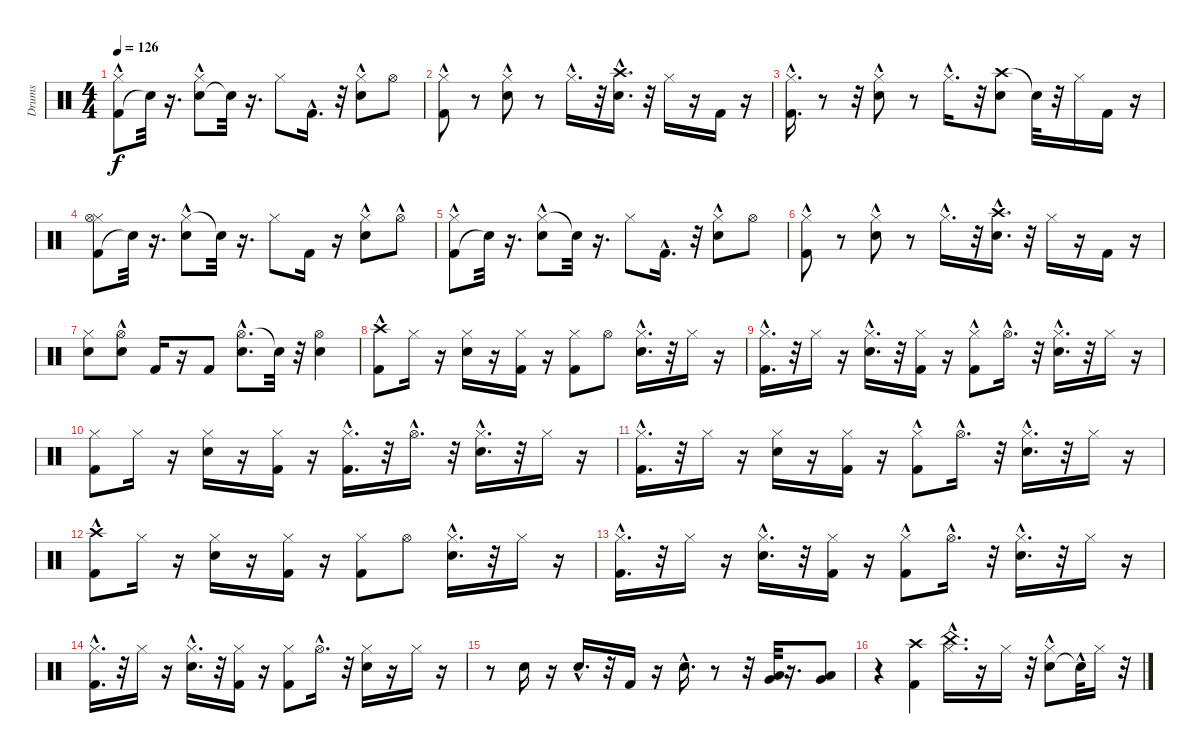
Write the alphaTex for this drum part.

\track ("Drums" "Drums") {instrument percussion}
\staff {score}
\articulation defaults
\ts (4 4)
\tempo 126
\clef neutral
\ks c
("Kick (hit) 2"{hac} "Hi-Hat (closed)").8{dy f} "Snare (hit)"{t}.32 r.16{d} ("Electric Snare (hit)"{hac} "Hi-Hat (closed)").8 "Snare (hit)"{t}.32 r.16{d} "Hi-Hat (closed)".8 "Kick (hit) 2"{hac}.16{d} r.32 ("Electric Snare (hit)"{hac} "Hi-Hat (closed)").8 "Hi-Hat (open)".8 |
("Hi-Hat (closed)" "Kick (hit) 2"{hac}).8 r.8 ("Hi-Hat (closed)" "Electric Snare (hit)"{hac}).8 r.8 "Hi-Hat (closed)"{hac}.16{d} r.32 ("Electric Snare (hit)"{hac} "Crash high (hit)"{hac}).16{d} r.32 "Hi-Hat (closed)".16 r.16 "Kick (hit) 2".16 r.16 |
("Kick (hit) 2"{hac} "Hi-Hat (closed)"{hac}).16{d} r.8 r.32 ("Electric Snare (hit)" "Hi-Hat (closed)"{hac}).8 r.8 "Hi-Hat (closed)"{hac}.16{d} r.32 ("Crash high (hit)" "Electric Snare (hit)").8 "Snare (hit)"{t}.32 r.32 "Hi-Hat (closed)".16 "Kick (hit) 2".16 r.16 |
("Kick (hit) 2" "Hi-Hat (closed)" "Hi-Hat (open)").8 "Snare (hit)"{t}.32 r.16{d} ("Hi-Hat (closed)" "Electric Snare (hit)"{hac}).8 "Snare (hit)"{t}.32 r.16{d} "Hi-Hat (closed)".8 "Kick (hit) 2".16 r.16 ("Hi-Hat (closed)" "Electric Snare (hit)"{hac}).8 "Hi-Hat (open)"{hac}.8 |
("Kick (hit) 2"{hac} "Hi-Hat (closed)").8 "Snare (hit)"{t}.32 r.16{d} ("Hi-Hat (closed)" "Electric Snare (hit)"{hac}).8 "Snare (hit)"{t}.32 r.16{d} "Hi-Hat (closed)".8 "Kick (hit) 2"{hac}.16{d} r.32 ("Hi-Hat (closed)" "Electric Snare (hit)"{hac}).8 "Hi-Hat (open)".8 |
("Hi-Hat (closed)" "Kick (hit) 2"{hac}).8 r.8 ("Electric Snare (hit)"{hac} "Hi-Hat (closed)").8 r.8 "Hi-Hat (closed)"{hac}.16{d} r.32 ("Electric Snare (hit)"{hac} "Crash high (hit)"{hac}).16{d} r.32 "Hi-Hat (closed)".16 r.16 "Kick (hit) 2".16 r.16 |
("Electric Snare (hit)" "Hi-Hat (closed)").8 ("Electric Snare (hit)"{hac} "Hi-Hat (open)").8 "Kick (hit) 2".16 r.16 "Kick (hit) 2".8 ("Hi-Hat (open)"{hac} "Electric Snare (hit)").8{d} "Snare (hit)"{t}.32 r.32 ("Electric Snare (hit)" "Hi-Hat (open)").4 |
("Kick (hit) 2" "Crash high (hit)"{hac}).8 "Hi-Hat (closed)".16 r.16 ("Electric Snare (hit)" "Hi-Hat (closed)").16 r.16 ("Hi-Hat (closed)" "Kick (hit) 2").16 r.16 ("Kick (hit) 2" "Hi-Hat (closed)").8 "Hi-Hat (open)".8 ("Hi-Hat (closed)" "Electric Snare (hit)"{hac}).16{d} r.32 "Hi-Hat (closed)".16 r.16 |
("Kick (hit) 2"{hac} "Hi-Hat (closed)").16{d} r.32 "Hi-Hat (closed)".16 r.16 ("Hi-Hat (closed)" "Electric Snare (hit)"{hac}).16{d} r.32 ("Kick (hit) 2" "Hi-Hat (closed)").16 r.16 ("Hi-Hat (closed)"{hac} "Kick (hit) 2").8 "Hi-Hat (open)"{hac}.16{d} r.32 ("Electric Snare (hit)" "Hi-Hat (closed)"{hac}).16{d} r.32 "Hi-Hat (closed)".16 r.16 |
("Hi-Hat (closed)" "Kick (hit) 2").8 "Hi-Hat (closed)".16 r.16 ("Electric Snare (hit)" "Hi-Hat (closed)").16 r.16 ("Hi-Hat (closed)" "Kick (hit) 2").16 r.16 ("Kick (hit) 2"{hac} "Hi-Hat (closed)").16{d} r.32 "Hi-Hat (open)"{hac}.16{d} r.32 ("Electric Snare (hit)"{hac} "Hi-Hat (closed)").16{d} r.32 "Hi-Hat (closed)".16 r.16 |
("Hi-Hat (closed)" "Kick (hit) 2"{hac}).16{d} r.32 "Hi-Hat (closed)".16 r.16 ("Hi-Hat (closed)" "Electric Snare (hit)").16 r.16 ("Kick (hit) 2" "Hi-Hat (closed)").16 r.16 ("Kick (hit) 2" "Hi-Hat (closed)"{hac}).8 "Hi-Hat (open)"{hac}.16{d} r.32 ("Hi-Hat (closed)"{hac} "Electric Snare (hit)"{hac}).16{d} r.32 "Hi-Hat (closed)".16 r.16 |
("Kick (hit) 2" "Crash high (hit)"{hac}).8 "Hi-Hat (closed)".16 r.16 ("Electric Snare (hit)" "Hi-Hat (closed)").16 r.16 ("Kick (hit) 2" "Hi-Hat (closed)").16 r.16 ("Hi-Hat (closed)" "Kick (hit) 2").8 "Hi-Hat (open)".8 ("Hi-Hat (closed)" "Electric Snare (hit)"{hac}).16{d} r.32 "Hi-Hat (closed)".16 r.16 |
("Kick (hit) 2"{hac} "Hi-Hat (closed)").16{d} r.32 "Hi-Hat (closed)".16 r.16 ("Electric Snare (hit)"{hac} "Hi-Hat (closed)").16{d} r.32 ("Hi-Hat (closed)" "Kick (hit) 2").16 r.16 ("Hi-Hat (closed)"{hac} "Kick (hit) 2").8 "Hi-Hat (open)"{hac}.16{d} r.32 ("Hi-Hat (closed)"{hac} "Electric Snare (hit)").16{d} r.32 "Hi-Hat (closed)".16 r.16 |
("Hi-Hat (closed)" "Kick (hit) 2"{hac}).16{d} r.32 "Hi-Hat (closed)".16 r.16 ("Electric Snare (hit)"{hac} "Hi-Hat (closed)").16{d} r.32 ("Kick (hit) 2" "Hi-Hat (closed)").16 r.16 ("Hi-Hat (closed)" "Kick (hit) 2").8 "Hi-Hat (open)"{hac}.16{d} r.32 ("Electric Snare (hit)" "Hi-Hat (closed)").16 r.16 "Hi-Hat (closed)".16 r.16 |
r.8 "Electric Snare (hit)".16 r.16 "Electric Snare (hit)"{hac}.16{d} r.32 "Kick (hit) 2".16 r.16 "Electric Snare (hit)"{hac}.16{d} r.8 r.32 ("Low Tom (hit)" "Very Low Tom (hit)").32 r.16{d} ("Low Floor Tom (hit)" "Very Low Tom (hit)").8 |
r.4 ("Crash high (hit)" "Kick (hit) 2").4 ("China (hit)"{hac} "Hi-Hat (closed)"{hac}).16{d} r.16 "Hi-Hat (closed)".16 r.32 ("Electric Snare (hit)" "Hi-Hat (closed)"{hac}).8 "Snare (hit)"{hac t}.32 "Hi-Hat (closed)".16 r.32
